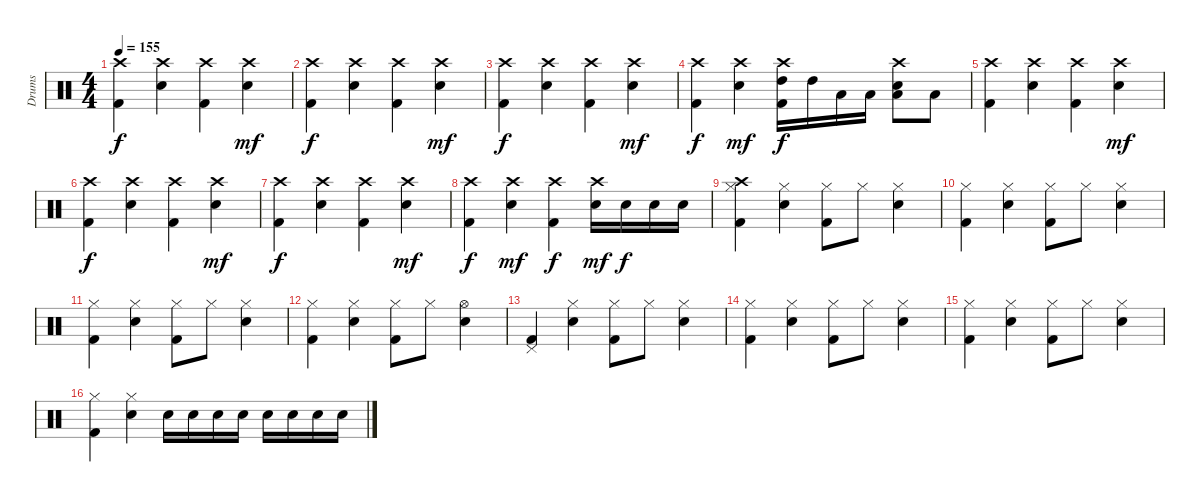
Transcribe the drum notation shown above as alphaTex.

\track ("Drums" "Drums") {instrument percussion}
\staff {score}
\articulation defaults
\ts (4 4)
\tempo 155
\clef neutral
\ks c
("Crash high (hit)" "Kick (hit) 2").4{dy f} ("Crash high (hit)" "Electric Snare (hit)").4 ("Crash high (hit)" "Kick (hit) 2").4 ("Crash high (hit)" "Electric Snare (hit)").4{dy mf} |
("Crash high (hit)" "Kick (hit) 2").4{dy f} ("Crash high (hit)" "Electric Snare (hit)").4 ("Crash high (hit)" "Kick (hit) 2").4 ("Crash high (hit)" "Electric Snare (hit)").4{dy mf} |
("Crash high (hit)" "Kick (hit) 2").4{dy f} ("Crash high (hit)" "Electric Snare (hit)").4 ("Crash high (hit)" "Kick (hit) 2").4 ("Crash high (hit)" "Electric Snare (hit)").4{dy mf} |
("Crash high (hit)" "Kick (hit) 2").4{dy f} ("Crash high (hit)" "Electric Snare (hit)").4{dy mf} ("Crash high (hit)" "High Tom (hit)" "Kick (hit) 2").16{dy f} "High Tom (hit)".16 "Low Tom (hit)".16 "Low Tom (hit)".16 ("Crash high (hit)" "Low Floor Tom (hit)" "Electric Snare (hit)").8 "Low Floor Tom (hit)".8 |
("Crash high (hit)" "Kick (hit) 2").4 ("Crash high (hit)" "Electric Snare (hit)").4 ("Crash high (hit)" "Kick (hit) 2").4 ("Crash high (hit)" "Electric Snare (hit)").4{dy mf} |
("Crash high (hit)" "Kick (hit) 2").4{dy f} ("Crash high (hit)" "Electric Snare (hit)").4 ("Crash high (hit)" "Kick (hit) 2").4 ("Crash high (hit)" "Electric Snare (hit)").4{dy mf} |
("Crash high (hit)" "Kick (hit) 2").4{dy f} ("Crash high (hit)" "Electric Snare (hit)").4 ("Crash high (hit)" "Kick (hit) 2").4 ("Crash high (hit)" "Electric Snare (hit)").4{dy mf} |
("Crash high (hit)" "Kick (hit) 2").4{dy f} ("Crash high (hit)" "Electric Snare (hit)").4{dy mf} ("Crash high (hit)" "Kick (hit) 2").4{dy f} ("Crash high (hit)" "Electric Snare (hit)").16{dy mf} "Electric Snare (hit)".16{dy f} "Electric Snare (hit)".16 "Electric Snare (hit)".16 |
("Crash high (hit)" "Hi-Hat (closed)" "Kick (hit) 2").4 ("Hi-Hat (closed)" "Electric Snare (hit)").4 ("Hi-Hat (closed)" "Kick (hit) 2").8 "Hi-Hat (closed)".8 ("Hi-Hat (closed)" "Electric Snare (hit)").4 |
("Hi-Hat (closed)" "Kick (hit) 2").4 ("Hi-Hat (closed)" "Electric Snare (hit)").4 ("Hi-Hat (closed)" "Kick (hit) 2").8 "Hi-Hat (closed)".8 ("Hi-Hat (closed)" "Electric Snare (hit)").4 |
("Hi-Hat (closed)" "Kick (hit) 2").4 ("Hi-Hat (closed)" "Electric Snare (hit)").4 ("Hi-Hat (closed)" "Kick (hit) 2").8 "Hi-Hat (closed)".8 ("Hi-Hat (closed)" "Electric Snare (hit)").4 |
("Hi-Hat (closed)" "Kick (hit) 2").4 ("Hi-Hat (closed)" "Electric Snare (hit)").4 ("Hi-Hat (closed)" "Kick (hit) 2").8 "Hi-Hat (closed)".8 ("Hi-Hat (open)" "Electric Snare (hit)").4 |
("Pedal Hi-Hat (hit)" "Kick (hit) 2").4 ("Hi-Hat (closed)" "Electric Snare (hit)").4 ("Hi-Hat (closed)" "Kick (hit) 2").8 "Hi-Hat (closed)".8 ("Hi-Hat (closed)" "Electric Snare (hit)").4 |
("Hi-Hat (closed)" "Kick (hit) 2").4 ("Hi-Hat (closed)" "Electric Snare (hit)").4 ("Hi-Hat (closed)" "Kick (hit) 2").8 "Hi-Hat (closed)".8 ("Hi-Hat (closed)" "Electric Snare (hit)").4 |
("Hi-Hat (closed)" "Kick (hit) 2").4 ("Hi-Hat (closed)" "Electric Snare (hit)").4 ("Hi-Hat (closed)" "Kick (hit) 2").8 "Hi-Hat (closed)".8 ("Hi-Hat (closed)" "Electric Snare (hit)").4 |
("Hi-Hat (closed)" "Kick (hit) 2").4 ("Hi-Hat (closed)" "Electric Snare (hit)").4 "Electric Snare (hit)".16 "Electric Snare (hit)".16 "Electric Snare (hit)".16 "Electric Snare (hit)".16 "Electric Snare (hit)".16 "Electric Snare (hit)".16 "Electric Snare (hit)".16 "Electric Snare (hit)".16
